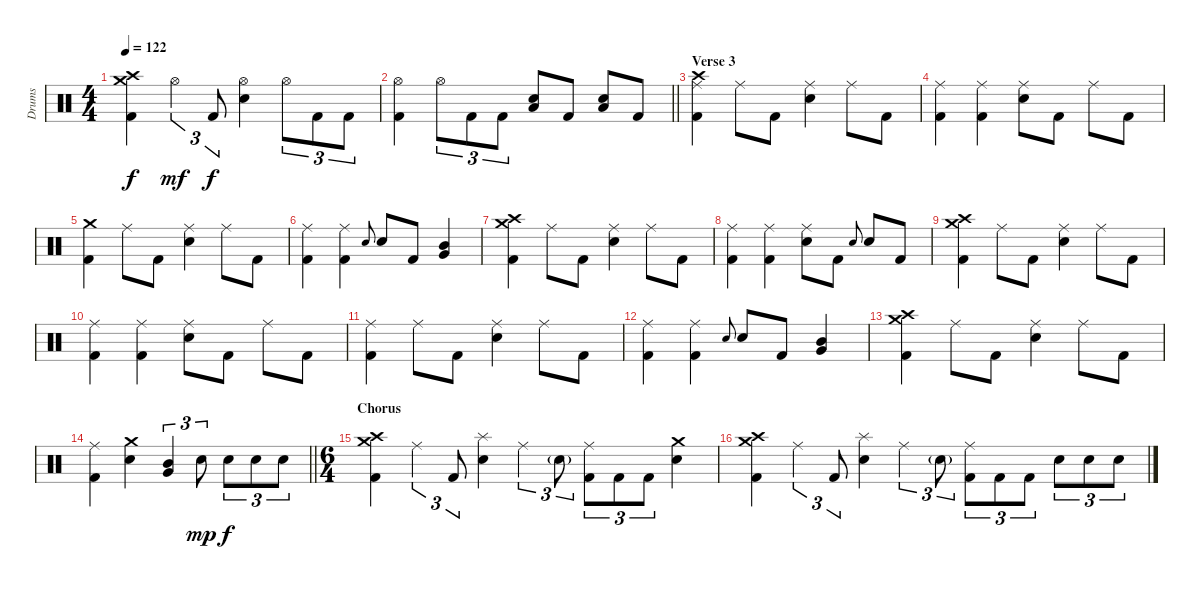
\track ("Drums" "Drums") {instrument percussion}
\staff {score}
\articulation defaults
\ts (4 4)
\tempo 122
\clef neutral
\ks c
("Crash high (hit)" "Crash medium (hit)" "Kick (hit) 2").4{dy f} "Hi-Hat (open)".4{tu (3 2) dy mf} "Kick (hit) 2".8{tu (3 2) dy f} ("Hi-Hat (open)" "Electric Snare (hit)").4 "Hi-Hat (open)".8{tu (3 2)} "Kick (hit) 2".8{tu (3 2)} "Kick (hit) 2".8{tu (3 2)} |
\barLineRight lightlight
("Hi-Hat (open)" "Kick (hit) 2").4 "Hi-Hat (open)".8{tu (3 2)} "Kick (hit) 2".8{tu (3 2)} "Kick (hit) 2".8{tu (3 2)} ("Low Floor Tom (hit)" "Electric Snare (hit)").8 "Kick (hit) 2".8 ("Low Floor Tom (hit)" "Electric Snare (hit)").8 "Kick (hit) 2".8 |
\section ("" "Verse 3")
("Crash high (hit)" "Ride (middle)" "Kick (hit) 2").4 "Ride (middle)".8 "Kick (hit) 2".8 ("Ride (middle)" "Electric Snare (hit)").4 "Ride (middle)".8 "Kick (hit) 2".8 |
("Ride (middle)" "Kick (hit) 2").4 ("Ride (middle)" "Kick (hit) 2").4 ("Ride (middle)" "Electric Snare (hit)").8 "Kick (hit) 2".8 "Ride (middle)".8 "Kick (hit) 2".8 |
("Crash medium (hit)" "Kick (hit) 2").4 "Ride (middle)".8 "Kick (hit) 2".8 ("Ride (middle)" "Electric Snare (hit)").4 "Ride (middle)".8 "Kick (hit) 2".8 |
("Ride (middle)" "Kick (hit) 2").4 ("Ride (middle)" "Kick (hit) 2").4 "Electric Snare (hit)".8{gr onbeat} "Electric Snare (hit)".8 "Kick (hit) 2".8 ("Mid Tom (hit)" "Very Low Tom (hit)").4{bu 30} |
("Crash high (hit)" "Crash medium (hit)" "Kick (hit) 2").4 "Ride (middle)".8 "Kick (hit) 2".8 ("Ride (middle)" "Electric Snare (hit)").4 "Ride (middle)".8 "Kick (hit) 2".8 |
("Ride (middle)" "Kick (hit) 2").4 ("Ride (middle)" "Kick (hit) 2").4 ("Ride (middle)" "Electric Snare (hit)").8 "Kick (hit) 2".8 "Electric Snare (hit)".8{gr onbeat} "Electric Snare (hit)".8 "Kick (hit) 2".8 |
("Crash high (hit)" "Crash medium (hit)" "Kick (hit) 2").4 "Ride (middle)".8 "Kick (hit) 2".8 ("Ride (middle)" "Electric Snare (hit)").4 "Ride (middle)".8 "Kick (hit) 2".8 |
("Ride (middle)" "Kick (hit) 2").4 ("Ride (middle)" "Kick (hit) 2").4 ("Ride (middle)" "Electric Snare (hit)").8 "Kick (hit) 2".8 "Ride (middle)".8 "Kick (hit) 2".8 |
("Ride (middle)" "Kick (hit) 2").4 "Ride (middle)".8 "Kick (hit) 2".8 ("Ride (middle)" "Electric Snare (hit)").4 "Ride (middle)".8 "Kick (hit) 2".8 |
("Ride (middle)" "Kick (hit) 2").4 ("Ride (middle)" "Kick (hit) 2").4 "Electric Snare (hit)".8{gr onbeat} "Electric Snare (hit)".8 "Kick (hit) 2".8 ("Mid Tom (hit)" "Very Low Tom (hit)").4{bu 30} |
("Crash high (hit)" "Crash medium (hit)" "Kick (hit) 2").4 "Ride (middle)".8 "Kick (hit) 2".8 ("Ride (middle)" "Electric Snare (hit)").4 "Ride (middle)".8 "Kick (hit) 2".8 |
\barLineRight lightlight
("Ride (middle)" "Kick (hit) 2").4 ("Crash medium (hit)" "Electric Snare (hit)").4 ("Mid Tom (hit)" "Very Low Tom (hit)").4{tu (3 2)} "Electric Snare (hit)".8{tu (3 2) dy mp} "Electric Snare (hit)".8{tu (3 2) dy f} "Electric Snare (hit)".8{tu (3 2)} "Electric Snare (hit)".8{tu (3 2)} |
\ts (6 4)
\section ("" "Chorus")
("Crash high (hit)" "Crash medium (hit)" "Kick (hit) 2").4 "Ride (middle)".4{tu (3 2)} "Kick (hit) 2".8{tu (3 2)} ("Splash (hit)" "Electric Snare (hit)").4 "Ride (middle)".4{tu (3 2)} "Electric Snare (hit)"{g}.8{tu (3 2)} ("Ride (middle)" "Kick (hit) 2").8{tu (3 2)} "Kick (hit) 2".8{tu (3 2)} "Kick (hit) 2".8{tu (3 2)} ("Crash medium (hit)" "Electric Snare (hit)").4 |
("Crash high (hit)" "Crash medium (hit)" "Kick (hit) 2").4 "Ride (middle)".4{tu (3 2)} "Kick (hit) 2".8{tu (3 2)} ("Splash (hit)" "Electric Snare (hit)").4 "Ride (middle)".4{tu (3 2)} "Electric Snare (hit)"{g}.8{tu (3 2)} ("Ride (middle)" "Kick (hit) 2").8{tu (3 2)} "Kick (hit) 2".8{tu (3 2)} "Kick (hit) 2".8{tu (3 2)} "Electric Snare (hit)".8{tu (3 2)} "Electric Snare (hit)".8{tu (3 2)} "Electric Snare (hit)".8{tu (3 2)}
